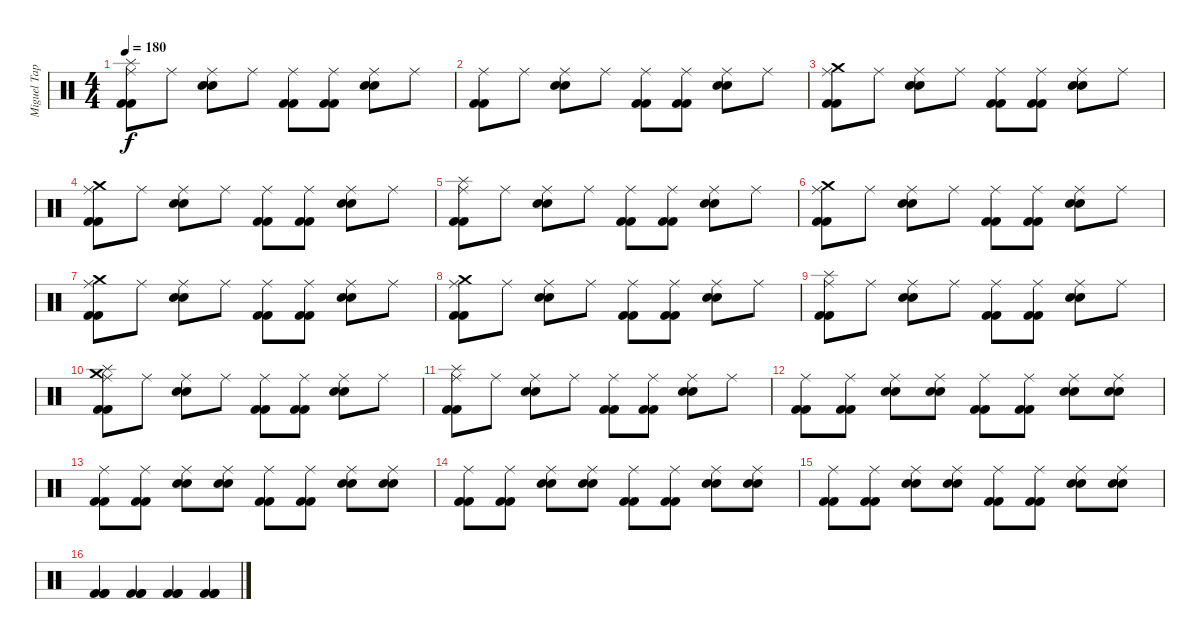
\track ("Miguel Tapia" "Miguel Tap") {instrument percussion}
\staff {score}
\articulation defaults
\ts (4 4)
\tempo 180
\clef neutral
\ks c
("Ride (middle)" "Kick (hit) 2" "Kick (hit) 2" "Splash (hit)").8{dy f} "Ride (middle)".8 ("Ride (middle)" "Electric Snare (hit)" "Electric Snare (hit)").8 "Ride (middle)".8 ("Ride (middle)" "Kick (hit) 2" "Kick (hit) 2").8 ("Ride (middle)" "Kick (hit) 2" "Kick (hit) 2").8 ("Ride (middle)" "Electric Snare (hit)" "Electric Snare (hit)").8 "Ride (middle)".8 |
("Ride (middle)" "Kick (hit) 2" "Kick (hit) 2").8 "Ride (middle)".8 ("Ride (middle)" "Electric Snare (hit)" "Electric Snare (hit)").8 "Ride (middle)".8 ("Ride (middle)" "Kick (hit) 2" "Kick (hit) 2").8 ("Ride (middle)" "Kick (hit) 2" "Kick (hit) 2").8 ("Ride (middle)" "Electric Snare (hit)" "Electric Snare (hit)").8 "Ride (middle)".8 |
("Ride (middle)" "Kick (hit) 2" "Kick (hit) 2" "Crash medium (hit)").8 "Ride (middle)".8 ("Ride (middle)" "Electric Snare (hit)" "Electric Snare (hit)").8 "Ride (middle)".8 ("Ride (middle)" "Kick (hit) 2" "Kick (hit) 2").8 ("Ride (middle)" "Kick (hit) 2" "Kick (hit) 2").8 ("Ride (middle)" "Electric Snare (hit)" "Electric Snare (hit)").8 "Ride (middle)".8 |
("Ride (middle)" "Kick (hit) 2" "Kick (hit) 2" "Crash medium (hit)").8 "Ride (middle)".8 ("Ride (middle)" "Electric Snare (hit)" "Electric Snare (hit)").8 "Ride (middle)".8 ("Ride (middle)" "Kick (hit) 2" "Kick (hit) 2").8 ("Ride (middle)" "Kick (hit) 2" "Kick (hit) 2").8 ("Ride (middle)" "Electric Snare (hit)" "Electric Snare (hit)").8 "Ride (middle)".8 |
("Ride (middle)" "Kick (hit) 2" "Kick (hit) 2" "Splash (hit)").8 "Ride (middle)".8 ("Ride (middle)" "Electric Snare (hit)" "Electric Snare (hit)").8 "Ride (middle)".8 ("Ride (middle)" "Kick (hit) 2" "Kick (hit) 2").8 ("Ride (middle)" "Kick (hit) 2" "Kick (hit) 2").8 ("Ride (middle)" "Electric Snare (hit)" "Electric Snare (hit)").8 "Ride (middle)".8 |
("Ride (middle)" "Kick (hit) 2" "Kick (hit) 2" "Crash medium (hit)").8 "Ride (middle)".8 ("Ride (middle)" "Electric Snare (hit)" "Electric Snare (hit)").8 "Ride (middle)".8 ("Ride (middle)" "Kick (hit) 2" "Kick (hit) 2").8 ("Ride (middle)" "Kick (hit) 2" "Kick (hit) 2").8 ("Ride (middle)" "Electric Snare (hit)" "Electric Snare (hit)").8 "Ride (middle)".8 |
("Ride (middle)" "Kick (hit) 2" "Kick (hit) 2" "Crash medium (hit)").8 "Ride (middle)".8 ("Ride (middle)" "Electric Snare (hit)" "Electric Snare (hit)").8 "Ride (middle)".8 ("Ride (middle)" "Kick (hit) 2" "Kick (hit) 2").8 ("Ride (middle)" "Kick (hit) 2" "Kick (hit) 2").8 ("Ride (middle)" "Electric Snare (hit)" "Electric Snare (hit)").8 "Ride (middle)".8 |
("Ride (middle)" "Kick (hit) 2" "Kick (hit) 2" "Crash medium (hit)").8 "Ride (middle)".8 ("Ride (middle)" "Electric Snare (hit)" "Electric Snare (hit)").8 "Ride (middle)".8 ("Ride (middle)" "Kick (hit) 2" "Kick (hit) 2").8 ("Ride (middle)" "Kick (hit) 2" "Kick (hit) 2").8 ("Ride (middle)" "Electric Snare (hit)" "Electric Snare (hit)").8 "Ride (middle)".8 |
("Ride (middle)" "Kick (hit) 2" "Kick (hit) 2" "Splash (hit)").8 "Ride (middle)".8 ("Ride (middle)" "Electric Snare (hit)" "Electric Snare (hit)").8 "Ride (middle)".8 ("Ride (middle)" "Kick (hit) 2" "Kick (hit) 2").8 ("Ride (middle)" "Kick (hit) 2" "Kick (hit) 2").8 ("Ride (middle)" "Electric Snare (hit)" "Electric Snare (hit)").8 "Ride (middle)".8 |
("Ride (middle)" "Kick (hit) 2" "Kick (hit) 2" "Crash medium (hit)" "Splash (hit)").8 "Ride (middle)".8 ("Ride (middle)" "Electric Snare (hit)" "Electric Snare (hit)").8 "Ride (middle)".8 ("Ride (middle)" "Kick (hit) 2" "Kick (hit) 2").8 ("Ride (middle)" "Kick (hit) 2" "Kick (hit) 2").8 ("Ride (middle)" "Electric Snare (hit)" "Electric Snare (hit)").8 "Ride (middle)".8 |
("Ride (middle)" "Kick (hit) 2" "Kick (hit) 2" "Splash (hit)").8 "Ride (middle)".8 ("Ride (middle)" "Electric Snare (hit)" "Electric Snare (hit)").8 "Ride (middle)".8 ("Ride (middle)" "Kick (hit) 2" "Kick (hit) 2").8 ("Ride (middle)" "Kick (hit) 2" "Kick (hit) 2").8 ("Ride (middle)" "Electric Snare (hit)" "Electric Snare (hit)").8 "Ride (middle)".8 |
("Ride (middle)" "Kick (hit) 2" "Kick (hit) 2").8 ("Ride (middle)" "Kick (hit) 2" "Kick (hit) 2").8 ("Ride (middle)" "Electric Snare (hit)" "Electric Snare (hit)").8 ("Ride (middle)" "Electric Snare (hit)" "Electric Snare (hit)").8 ("Ride (middle)" "Kick (hit) 2" "Kick (hit) 2").8 ("Ride (middle)" "Kick (hit) 2" "Kick (hit) 2").8 ("Ride (middle)" "Electric Snare (hit)" "Electric Snare (hit)").8 ("Ride (middle)" "Electric Snare (hit)" "Electric Snare (hit)").8 |
("Ride (middle)" "Kick (hit) 2" "Kick (hit) 2").8 ("Ride (middle)" "Kick (hit) 2" "Kick (hit) 2").8 ("Ride (middle)" "Electric Snare (hit)" "Electric Snare (hit)").8 ("Ride (middle)" "Electric Snare (hit)" "Electric Snare (hit)").8 ("Ride (middle)" "Kick (hit) 2" "Kick (hit) 2").8 ("Ride (middle)" "Kick (hit) 2" "Kick (hit) 2").8 ("Ride (middle)" "Electric Snare (hit)" "Electric Snare (hit)").8 ("Ride (middle)" "Electric Snare (hit)" "Electric Snare (hit)").8 |
("Ride (middle)" "Kick (hit) 2" "Kick (hit) 2").8 ("Ride (middle)" "Kick (hit) 2" "Kick (hit) 2").8 ("Ride (middle)" "Electric Snare (hit)" "Electric Snare (hit)").8 ("Ride (middle)" "Electric Snare (hit)" "Electric Snare (hit)").8 ("Ride (middle)" "Kick (hit) 2" "Kick (hit) 2").8 ("Ride (middle)" "Kick (hit) 2" "Kick (hit) 2").8 ("Ride (middle)" "Electric Snare (hit)" "Electric Snare (hit)").8 ("Ride (middle)" "Electric Snare (hit)" "Electric Snare (hit)").8 |
("Ride (middle)" "Kick (hit) 2" "Kick (hit) 2").8 ("Ride (middle)" "Kick (hit) 2" "Kick (hit) 2").8 ("Ride (middle)" "Electric Snare (hit)" "Electric Snare (hit)").8 ("Ride (middle)" "Electric Snare (hit)" "Electric Snare (hit)").8 ("Ride (middle)" "Kick (hit) 2" "Kick (hit) 2").8 ("Ride (middle)" "Kick (hit) 2" "Kick (hit) 2").8 ("Ride (middle)" "Electric Snare (hit)" "Electric Snare (hit)").8 ("Ride (middle)" "Electric Snare (hit)" "Electric Snare (hit)").8 |
("Kick (hit) 2" "Kick (hit) 2" "Kick (hit) 2").4 ("Kick (hit) 2" "Kick (hit) 2" "Kick (hit) 2").4 ("Kick (hit) 2" "Kick (hit) 2" "Kick (hit) 2").4 ("Kick (hit) 2" "Kick (hit) 2" "Kick (hit) 2").4
